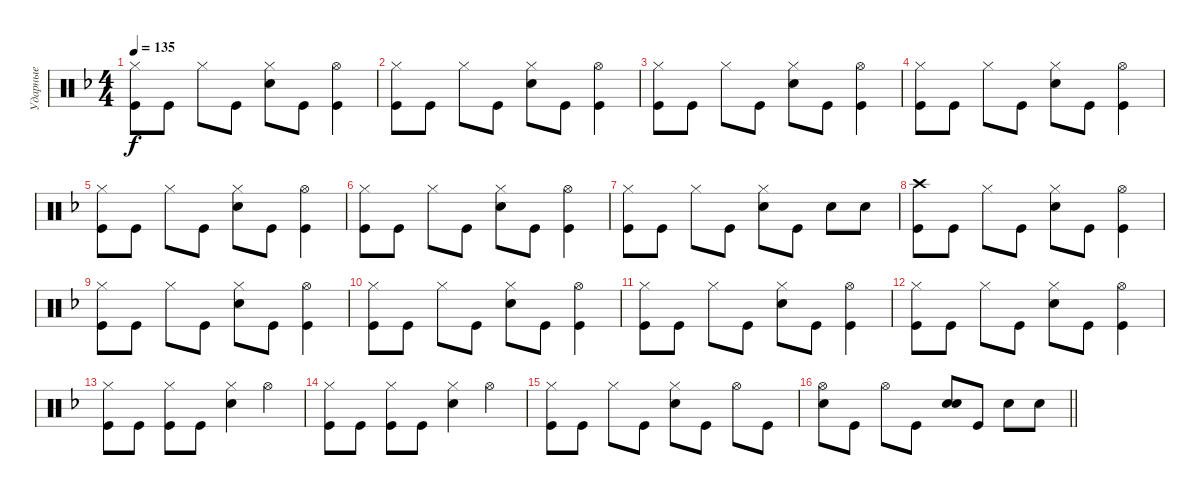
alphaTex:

\track ("Ударные" "Ударные") {instrument percussion}
\staff {score}
\articulation defaults
\ts (4 4)
\tempo 135
\clef neutral
\ks dminor
("Kick (hit)" "Hi-Hat (closed)").8{dy f} "Kick (hit)".8 "Hi-Hat (closed)".8 "Kick (hit)".8 ("Snare (hit) 2" "Hi-Hat (closed)").8 "Kick (hit)".8 ("Kick (hit)" "Hi-Hat (open)").4 |
("Kick (hit)" "Hi-Hat (closed)").8 "Kick (hit)".8 "Hi-Hat (closed)".8 "Kick (hit)".8 ("Snare (hit) 2" "Hi-Hat (closed)").8 "Kick (hit)".8 ("Kick (hit)" "Hi-Hat (open)").4 |
("Kick (hit)" "Hi-Hat (closed)").8 "Kick (hit)".8 "Hi-Hat (closed)".8 "Kick (hit)".8 ("Snare (hit) 2" "Hi-Hat (closed)").8 "Kick (hit)".8 ("Kick (hit)" "Hi-Hat (open)").4 |
("Kick (hit)" "Hi-Hat (closed)").8 "Kick (hit)".8 "Hi-Hat (closed)".8 "Kick (hit)".8 ("Snare (hit) 2" "Hi-Hat (closed)").8 "Kick (hit)".8 ("Kick (hit)" "Hi-Hat (open)").4 |
("Kick (hit)" "Hi-Hat (closed)").8 "Kick (hit)".8 "Hi-Hat (closed)".8 "Kick (hit)".8 ("Snare (hit) 2" "Hi-Hat (closed)").8 "Kick (hit)".8 ("Kick (hit)" "Hi-Hat (open)").4 |
("Kick (hit)" "Hi-Hat (closed)").8 "Kick (hit)".8 "Hi-Hat (closed)".8 "Kick (hit)".8 ("Snare (hit) 2" "Hi-Hat (closed)").8 "Kick (hit)".8 ("Kick (hit)" "Hi-Hat (open)").4 |
("Kick (hit)" "Hi-Hat (closed)").8 "Kick (hit)".8 "Hi-Hat (closed)".8 "Kick (hit)".8 ("Snare (hit) 2" "Hi-Hat (closed)").8 "Kick (hit)".8 "Snare (hit) 2".8 "Snare (hit) 2".8 |
("Kick (hit)" "Crash high (hit)").8 "Kick (hit)".8 "Hi-Hat (closed)".8 "Kick (hit)".8 ("Snare (hit) 2" "Hi-Hat (closed)").8 "Kick (hit)".8 ("Kick (hit)" "Hi-Hat (open)").4 |
("Kick (hit)" "Hi-Hat (closed)").8 "Kick (hit)".8 "Hi-Hat (closed)".8 "Kick (hit)".8 ("Snare (hit) 2" "Hi-Hat (closed)").8 "Kick (hit)".8 ("Kick (hit)" "Hi-Hat (open)").4 |
("Kick (hit)" "Hi-Hat (closed)").8 "Kick (hit)".8 "Hi-Hat (closed)".8 "Kick (hit)".8 ("Snare (hit) 2" "Hi-Hat (closed)").8 "Kick (hit)".8 ("Kick (hit)" "Hi-Hat (open)").4 |
("Kick (hit)" "Hi-Hat (closed)").8 "Kick (hit)".8 "Hi-Hat (closed)".8 "Kick (hit)".8 ("Snare (hit) 2" "Hi-Hat (closed)").8 "Kick (hit)".8 ("Kick (hit)" "Hi-Hat (open)").4 |
("Kick (hit)" "Hi-Hat (closed)").8 "Kick (hit)".8 "Hi-Hat (closed)".8 "Kick (hit)".8 ("Snare (hit) 2" "Hi-Hat (closed)").8 "Kick (hit)".8 ("Kick (hit)" "Hi-Hat (open)").4 |
("Kick (hit)" "Hi-Hat (closed)").8 "Kick (hit)".8 ("Hi-Hat (closed)" "Kick (hit)").8 "Kick (hit)".8 ("Snare (hit) 2" "Hi-Hat (closed)").4 "Hi-Hat (open)".4 |
("Kick (hit)" "Hi-Hat (closed)").8 "Kick (hit)".8 ("Hi-Hat (closed)" "Kick (hit)").8 "Kick (hit)".8 ("Snare (hit) 2" "Hi-Hat (closed)").4 "Hi-Hat (open)".4 |
("Kick (hit)" "Hi-Hat (closed)").8 "Kick (hit)".8 "Hi-Hat (closed)".8 "Kick (hit)".8 ("Snare (hit) 2" "Hi-Hat (closed)").8 "Kick (hit)".8 "Hi-Hat (open)".8 "Kick (hit)".8 |
\barLineRight lightlight
("Snare (hit) 2" "Hi-Hat (open)").8 "Kick (hit)".8 "Hi-Hat (open)".8 "Kick (hit)".8 ("Snare (hit) 2" "Snare (hit) 2").8{bd 240} "Kick (hit)".8 "Snare (hit) 2".8 "Snare (hit) 2".8
